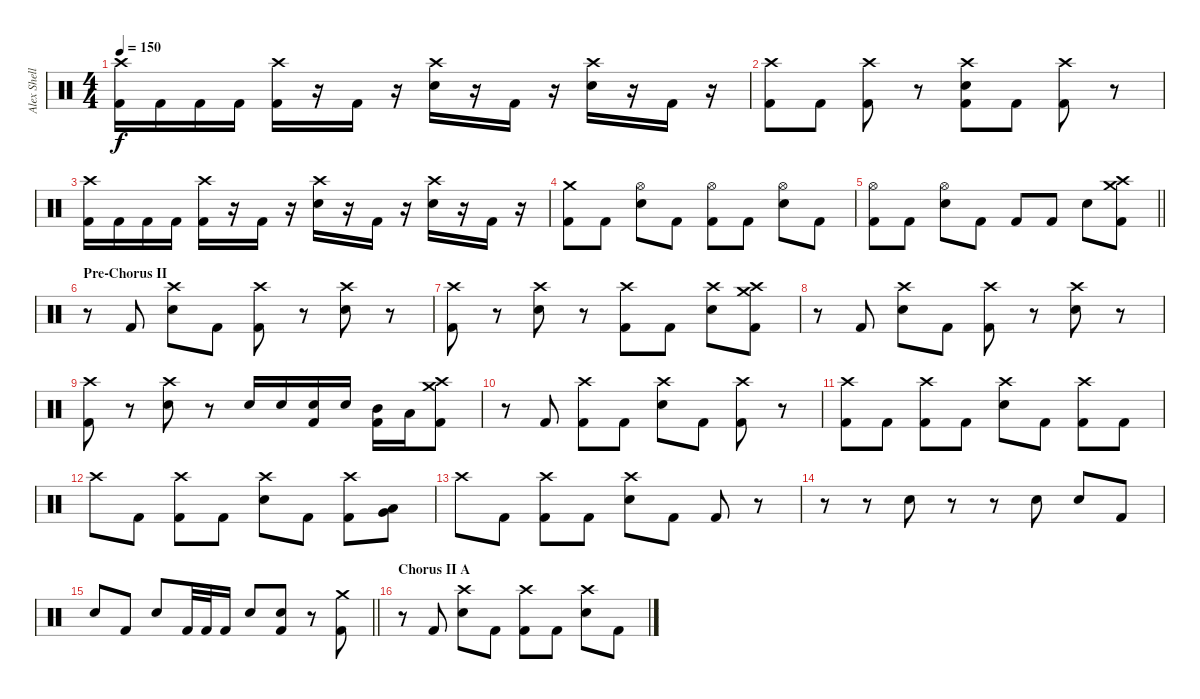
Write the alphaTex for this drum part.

\track ("Alex Shellnutt" "Alex Shell") {instrument percussion}
\staff {score}
\articulation defaults
\ts (4 4)
\tempo 150
\clef neutral
\ks c
("Crash high (hit)" "Kick (hit) 2").16{dy f} "Kick (hit) 2".16 "Kick (hit) 2".16 "Kick (hit) 2".16 ("Crash high (hit)" "Kick (hit) 2").16 r.16 "Kick (hit) 2".16 r.16 ("Crash high (hit)" "Snare (hit) 2").16 r.16 "Kick (hit) 2".16 r.16 ("Crash high (hit)" "Snare (hit) 2").16 r.16 "Kick (hit) 2".16 r.16 |
("Crash high (hit)" "Kick (hit) 2").8 "Kick (hit) 2".8 ("Crash high (hit)" "Kick (hit) 2").8 r.8 ("Crash high (hit)" "Snare (hit) 2" "Kick (hit) 2").8 "Kick (hit) 2".8 ("Crash high (hit)" "Kick (hit) 2").8 r.8 |
("Crash high (hit)" "Kick (hit) 2").16 "Kick (hit) 2".16 "Kick (hit) 2".16 "Kick (hit) 2".16 ("Crash high (hit)" "Kick (hit) 2").16 r.16 "Kick (hit) 2".16 r.16 ("Crash high (hit)" "Snare (hit) 2").16 r.16 "Kick (hit) 2".16 r.16 ("Crash high (hit)" "Snare (hit) 2").16 r.16 "Kick (hit) 2".16 r.16 |
("Crash medium (hit)" "Kick (hit) 2").8 "Kick (hit) 2".8 ("Hi-Hat (open)" "Snare (hit) 2").8 "Kick (hit) 2".8 ("Hi-Hat (open)" "Kick (hit) 2").8 "Kick (hit) 2".8 ("Hi-Hat (open)" "Snare (hit) 2").8 "Kick (hit) 2".8 |
\barLineRight lightlight
("Hi-Hat (open)" "Kick (hit) 2").8 "Kick (hit) 2".8 ("Hi-Hat (open)" "Snare (hit) 2").8 "Kick (hit) 2".8 "Kick (hit) 2".8 "Kick (hit) 2".8 "Snare (hit) 2".8 ("Crash medium (hit)" "Crash high (hit)" "Kick (hit) 2").8 |
\section ("" "Pre-Chorus II")
r.8 "Kick (hit) 2".8 ("Crash high (hit)" "Snare (hit) 2").8 "Kick (hit) 2".8 ("Crash high (hit)" "Kick (hit) 2").8 r.8 ("Crash high (hit)" "Snare (hit) 2").8 r.8 |
("Crash high (hit)" "Kick (hit) 2").8 r.8 ("Crash high (hit)" "Snare (hit) 2").8 r.8 ("Crash high (hit)" "Kick (hit) 2").8 "Kick (hit) 2".8 ("Crash high (hit)" "Snare (hit) 2").8 ("Crash medium (hit)" "Crash high (hit)" "Kick (hit) 2").8 |
r.8 "Kick (hit) 2".8 ("Crash high (hit)" "Snare (hit) 2").8 "Kick (hit) 2".8 ("Crash high (hit)" "Kick (hit) 2").8 r.8 ("Crash high (hit)" "Snare (hit) 2").8 r.8 |
("Crash high (hit)" "Kick (hit) 2").8 r.8 ("Crash high (hit)" "Snare (hit) 2").8 r.8 "Snare (hit) 2".16 "Snare (hit) 2".16 ("Snare (hit) 2" "Kick (hit) 2").16 "Snare (hit) 2".16 ("Mid Tom (hit)" "Kick (hit) 2").16 "Low Tom (hit)".16 ("Crash medium (hit)" "Crash high (hit)" "Kick (hit) 2").8 |
r.8 "Kick (hit) 2".8 ("Crash high (hit)" "Kick (hit) 2").8 "Kick (hit) 2".8 ("Crash high (hit)" "Snare (hit) 2").8 "Kick (hit) 2".8 ("Crash high (hit)" "Kick (hit) 2").8 r.8 |
("Crash high (hit)" "Kick (hit) 2").8 "Kick (hit) 2".8 ("Crash high (hit)" "Kick (hit) 2").8 "Kick (hit) 2".8 ("Crash high (hit)" "Snare (hit) 2").8 "Kick (hit) 2".8 ("Crash high (hit)" "Kick (hit) 2").8 "Kick (hit) 2".8 |
"Crash high (hit)".8 "Kick (hit) 2".8 ("Crash high (hit)" "Kick (hit) 2").8 "Kick (hit) 2".8 ("Crash high (hit)" "Snare (hit) 2").8 "Kick (hit) 2".8 ("Crash high (hit)" "Kick (hit) 2").8 ("Low Floor Tom (hit)" "Very Low Tom (hit)").8 |
"Crash high (hit)".8 "Kick (hit) 2".8 ("Crash high (hit)" "Kick (hit) 2").8 "Kick (hit) 2".8 ("Crash high (hit)" "Snare (hit) 2").8 "Kick (hit) 2".8 "Kick (hit) 2".8 r.8 |
r.8 r.8 "Snare (hit) 2".8 r.8 r.8 "Snare (hit) 2".8 "Snare (hit) 2".8 "Kick (hit) 2".8 |
\barLineRight lightlight "Snare (hit) 2".8 "Kick (hit) 2".8 "Snare (hit) 2".8 "Kick (hit) 2".32 "Kick (hit) 2".32 "Kick (hit) 2".16 "Snare (hit) 2".8
("Snare (hit) 2" "Kick (hit) 2").8 r.8 ("Crash medium (hit)" "Kick (hit) 2").8 |
\section ("" "Chorus II A")
r.8 "Kick (hit) 2".8 ("Crash high (hit)" "Snare (hit) 2").8 "Kick (hit) 2".8 ("Crash high (hit)" "Kick (hit) 2").8 "Kick (hit) 2".8 ("Crash high (hit)" "Snare (hit) 2").8 "Kick (hit) 2".8
